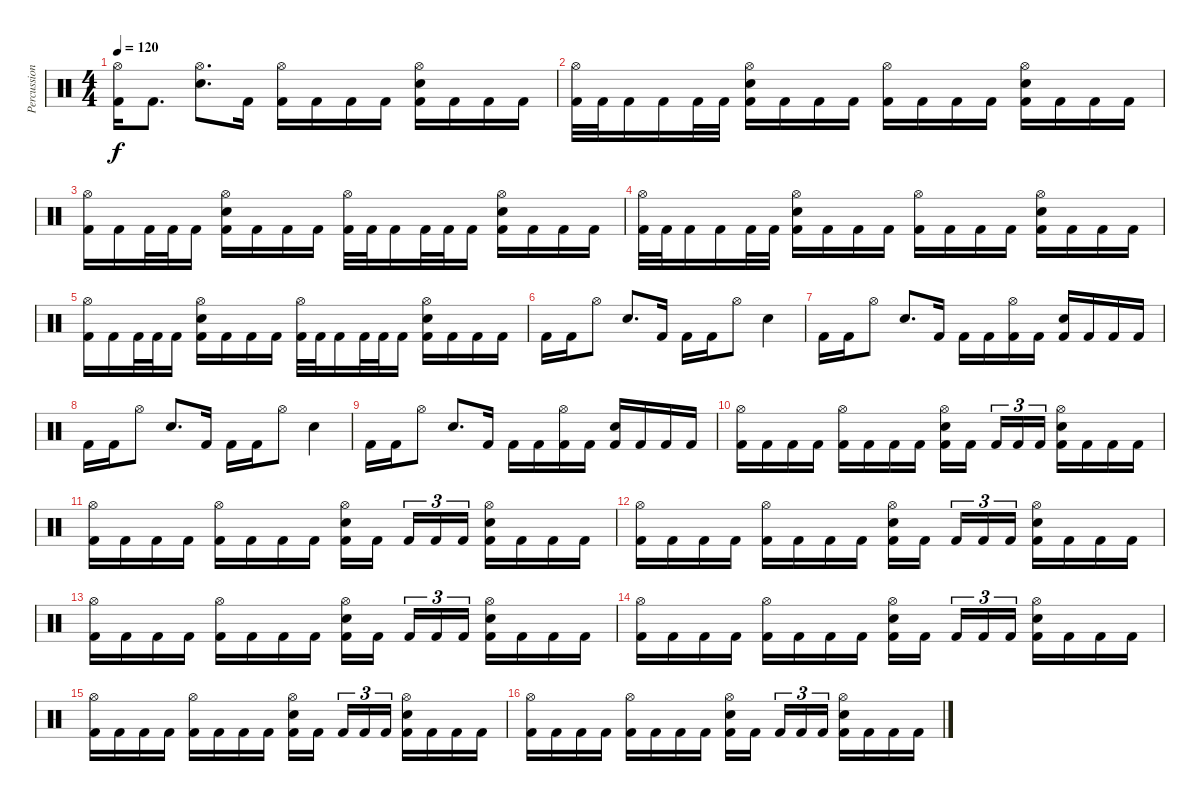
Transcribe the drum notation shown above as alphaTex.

\track ("Percussion" "Percussion") {instrument percussion}
\staff {score}
\articulation defaults
\ts (4 4)
\tempo 120
\clef neutral
\ks c
("Hi-Hat (open)" "Kick (hit) 2").16{dy f} "Kick (hit) 2".8{d} ("Hi-Hat (open)" "Snare (hit) 2").8{d} "Kick (hit) 2".16 ("Hi-Hat (open)" "Kick (hit) 2").16 "Kick (hit) 2".16 "Kick (hit) 2".16 "Kick (hit) 2".16 ("Hi-Hat (open)" "Snare (hit) 2" "Kick (hit) 2").16 "Kick (hit) 2".16 "Kick (hit) 2".16 "Kick (hit) 2".16 |
("Hi-Hat (open)" "Kick (hit) 2").32 "Kick (hit) 2".32 "Kick (hit) 2".16 "Kick (hit) 2".16 "Kick (hit) 2".32 "Kick (hit) 2".32 ("Hi-Hat (open)" "Snare (hit) 2" "Kick (hit) 2").16 "Kick (hit) 2".16 "Kick (hit) 2".16 "Kick (hit) 2".16 ("Hi-Hat (open)" "Kick (hit) 2").16 "Kick (hit) 2".16 "Kick (hit) 2".16 "Kick (hit) 2".16 ("Hi-Hat (open)" "Snare (hit) 2" "Kick (hit) 2").16 "Kick (hit) 2".16 "Kick (hit) 2".16 "Kick (hit) 2".16 |
("Hi-Hat (open)" "Kick (hit) 2").16 "Kick (hit) 2".16 "Kick (hit) 2".32 "Kick (hit) 2".32 "Kick (hit) 2".16 ("Hi-Hat (open)" "Snare (hit) 2" "Kick (hit) 2").16 "Kick (hit) 2".16 "Kick (hit) 2".16 "Kick (hit) 2".16 ("Hi-Hat (open)" "Kick (hit) 2").32 "Kick (hit) 2".32 "Kick (hit) 2".16 "Kick (hit) 2".32 "Kick (hit) 2".32 "Kick (hit) 2".16 ("Hi-Hat (open)" "Snare (hit) 2" "Kick (hit) 2").16 "Kick (hit) 2".16 "Kick (hit) 2".16 "Kick (hit) 2".16 |
("Hi-Hat (open)" "Kick (hit) 2").32 "Kick (hit) 2".32 "Kick (hit) 2".16 "Kick (hit) 2".16 "Kick (hit) 2".32 "Kick (hit) 2".32 ("Hi-Hat (open)" "Snare (hit) 2" "Kick (hit) 2").16 "Kick (hit) 2".16 "Kick (hit) 2".16 "Kick (hit) 2".16 ("Hi-Hat (open)" "Kick (hit) 2").16 "Kick (hit) 2".16 "Kick (hit) 2".16 "Kick (hit) 2".16 ("Hi-Hat (open)" "Snare (hit) 2" "Kick (hit) 2").16 "Kick (hit) 2".16 "Kick (hit) 2".16 "Kick (hit) 2".16 |
("Hi-Hat (open)" "Kick (hit) 2").16 "Kick (hit) 2".16 "Kick (hit) 2".32 "Kick (hit) 2".32 "Kick (hit) 2".16 ("Hi-Hat (open)" "Snare (hit) 2" "Kick (hit) 2").16 "Kick (hit) 2".16 "Kick (hit) 2".16 "Kick (hit) 2".16 ("Hi-Hat (open)" "Kick (hit) 2").32 "Kick (hit) 2".32 "Kick (hit) 2".16 "Kick (hit) 2".32 "Kick (hit) 2".32 "Kick (hit) 2".16 ("Hi-Hat (open)" "Snare (hit) 2" "Kick (hit) 2").16 "Kick (hit) 2".16 "Kick (hit) 2".16 "Kick (hit) 2".16 |
"Kick (hit) 2".16 "Kick (hit) 2".16 "Hi-Hat (open)".8 "Snare (hit) 2".8{d} "Kick (hit) 2".16 "Kick (hit) 2".16 "Kick (hit) 2".16 "Hi-Hat (open)".8 "Snare (hit) 2".4 |
"Kick (hit) 2".16 "Kick (hit) 2".16 "Hi-Hat (open)".8 "Snare (hit) 2".8{d} "Kick (hit) 2".16 "Kick (hit) 2".16 "Kick (hit) 2".16 ("Hi-Hat (open)" "Kick (hit) 2").16 "Kick (hit) 2".16 ("Snare (hit) 2" "Kick (hit) 2").16 "Kick (hit) 2".16 "Kick (hit) 2".16 "Kick (hit) 2".16 |
"Kick (hit) 2".16 "Kick (hit) 2".16 "Hi-Hat (open)".8 "Snare (hit) 2".8{d} "Kick (hit) 2".16 "Kick (hit) 2".16 "Kick (hit) 2".16 "Hi-Hat (open)".8 "Snare (hit) 2".4 |
"Kick (hit) 2".16 "Kick (hit) 2".16 "Hi-Hat (open)".8 "Snare (hit) 2".8{d} "Kick (hit) 2".16 "Kick (hit) 2".16 "Kick (hit) 2".16 ("Hi-Hat (open)" "Kick (hit) 2").16 "Kick (hit) 2".16 ("Snare (hit) 2" "Kick (hit) 2").16 "Kick (hit) 2".16 "Kick (hit) 2".16 "Kick (hit) 2".16 |
("Hi-Hat (open)" "Kick (hit) 2").16 "Kick (hit) 2".16 "Kick (hit) 2".16 "Kick (hit) 2".16 ("Hi-Hat (open)" "Kick (hit) 2").16 "Kick (hit) 2".16 "Kick (hit) 2".16 "Kick (hit) 2".16 ("Hi-Hat (open)" "Snare (hit) 2" "Kick (hit) 2").16 "Kick (hit) 2".16{beam splitsecondary} "Kick (hit) 2".16{tu (3 2)} "Kick (hit) 2".16{tu (3 2)} "Kick (hit) 2".16{tu (3 2)} ("Hi-Hat (open)" "Snare (hit) 2" "Kick (hit) 2").16 "Kick (hit) 2".16 "Kick (hit) 2".16 "Kick (hit) 2".16 |
("Hi-Hat (open)" "Kick (hit) 2").16 "Kick (hit) 2".16 "Kick (hit) 2".16 "Kick (hit) 2".16 ("Hi-Hat (open)" "Kick (hit) 2").16 "Kick (hit) 2".16 "Kick (hit) 2".16 "Kick (hit) 2".16 ("Hi-Hat (open)" "Snare (hit) 2" "Kick (hit) 2").16 "Kick (hit) 2".16{beam splitsecondary} "Kick (hit) 2".16{tu (3 2)} "Kick (hit) 2".16{tu (3 2)} "Kick (hit) 2".16{tu (3 2)} ("Hi-Hat (open)" "Snare (hit) 2" "Kick (hit) 2").16 "Kick (hit) 2".16 "Kick (hit) 2".16 "Kick (hit) 2".16 |
("Hi-Hat (open)" "Kick (hit) 2").16 "Kick (hit) 2".16 "Kick (hit) 2".16 "Kick (hit) 2".16 ("Hi-Hat (open)" "Kick (hit) 2").16 "Kick (hit) 2".16 "Kick (hit) 2".16 "Kick (hit) 2".16 ("Hi-Hat (open)" "Snare (hit) 2" "Kick (hit) 2").16 "Kick (hit) 2".16{beam splitsecondary} "Kick (hit) 2".16{tu (3 2)} "Kick (hit) 2".16{tu (3 2)} "Kick (hit) 2".16{tu (3 2)} ("Hi-Hat (open)" "Snare (hit) 2" "Kick (hit) 2").16 "Kick (hit) 2".16 "Kick (hit) 2".16 "Kick (hit) 2".16 |
("Hi-Hat (open)" "Kick (hit) 2").16 "Kick (hit) 2".16 "Kick (hit) 2".16 "Kick (hit) 2".16 ("Hi-Hat (open)" "Kick (hit) 2").16 "Kick (hit) 2".16 "Kick (hit) 2".16 "Kick (hit) 2".16 ("Hi-Hat (open)" "Snare (hit) 2" "Kick (hit) 2").16 "Kick (hit) 2".16{beam splitsecondary} "Kick (hit) 2".16{tu (3 2)} "Kick (hit) 2".16{tu (3 2)} "Kick (hit) 2".16{tu (3 2)} ("Hi-Hat (open)" "Snare (hit) 2" "Kick (hit) 2").16 "Kick (hit) 2".16 "Kick (hit) 2".16 "Kick (hit) 2".16 |
("Hi-Hat (open)" "Kick (hit) 2").16 "Kick (hit) 2".16 "Kick (hit) 2".16 "Kick (hit) 2".16 ("Hi-Hat (open)" "Kick (hit) 2").16 "Kick (hit) 2".16 "Kick (hit) 2".16 "Kick (hit) 2".16 ("Hi-Hat (open)" "Snare (hit) 2" "Kick (hit) 2").16 "Kick (hit) 2".16{beam splitsecondary} "Kick (hit) 2".16{tu (3 2)} "Kick (hit) 2".16{tu (3 2)} "Kick (hit) 2".16{tu (3 2)} ("Hi-Hat (open)" "Snare (hit) 2" "Kick (hit) 2").16 "Kick (hit) 2".16 "Kick (hit) 2".16 "Kick (hit) 2".16 |
("Hi-Hat (open)" "Kick (hit) 2").16 "Kick (hit) 2".16 "Kick (hit) 2".16 "Kick (hit) 2".16 ("Hi-Hat (open)" "Kick (hit) 2").16 "Kick (hit) 2".16 "Kick (hit) 2".16 "Kick (hit) 2".16 ("Hi-Hat (open)" "Snare (hit) 2" "Kick (hit) 2").16 "Kick (hit) 2".16{beam splitsecondary} "Kick (hit) 2".16{tu (3 2)} "Kick (hit) 2".16{tu (3 2)} "Kick (hit) 2".16{tu (3 2)} ("Hi-Hat (open)" "Snare (hit) 2" "Kick (hit) 2").16 "Kick (hit) 2".16 "Kick (hit) 2".16 "Kick (hit) 2".16 |
("Hi-Hat (open)" "Kick (hit) 2").16 "Kick (hit) 2".16 "Kick (hit) 2".16 "Kick (hit) 2".16 ("Hi-Hat (open)" "Kick (hit) 2").16 "Kick (hit) 2".16 "Kick (hit) 2".16 "Kick (hit) 2".16 ("Hi-Hat (open)" "Snare (hit) 2" "Kick (hit) 2").16 "Kick (hit) 2".16{beam splitsecondary} "Kick (hit) 2".16{tu (3 2)} "Kick (hit) 2".16{tu (3 2)} "Kick (hit) 2".16{tu (3 2)} ("Hi-Hat (open)" "Snare (hit) 2" "Kick (hit) 2").16 "Kick (hit) 2".16 "Kick (hit) 2".16 "Kick (hit) 2".16
